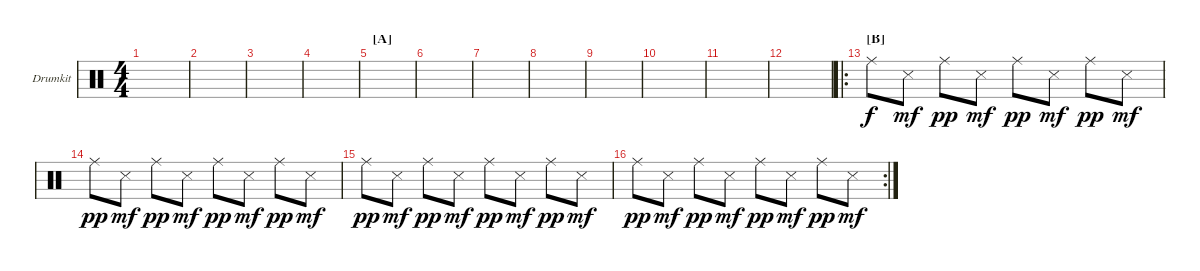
\defaultSystemsLayout 4
\bracketExtendMode groupsimilarinstruments
\firstSystemTrackNameOrientation horizontal
\otherSystemsTrackNameOrientation horizontal
\track ("Drumkit" "Drumkit") {instrument percussion}
\staff {score}
\articulation defaults
\ts (4 4)
\tempo (77 hide)
\clef neutral
\scale
0.474178
\ks c
|
\scale
0.262911 |
\scale
0.262911 |
\scale
0.333333 |
\section ("A" "")
\scale
0.333333 |
\scale
0.333333 |
\scale
0.333333 |
\scale
0.333333 |
\scale
0.333333 |
\scale
0.333333 |
\scale
0.333333 |
\scale
0.333333 |
\ro
\section ("B" "")
\scale
0.333333 "Ride (middle)".8 "Snare (side stick) 3".8{dy mf} "Ride (middle)".8{dy pp} "Snare (side stick) 3".8{dy mf} "Ride (middle)".8{dy pp} "Snare (side stick) 3".8{dy mf} "Ride (middle)".8{dy pp} "Snare (side stick) 3".8{dy mf} |
\scale
0.333333 "Ride (middle)".8{dy pp} "Snare (side stick) 3".8{dy mf} "Ride (middle)".8{dy pp} "Snare (side stick) 3".8{dy mf} "Ride (middle)".8{dy pp} "Snare (side stick) 3".8{dy mf} "Ride (middle)".8{dy pp} "Snare (side stick) 3".8{dy mf} |
"Ride (middle)".8{dy pp} "Snare (side stick) 3".8{dy mf} "Ride (middle)".8{dy pp} "Snare (side stick) 3".8{dy mf} "Ride (middle)".8{dy pp} "Snare (side stick) 3".8{dy mf} "Ride (middle)".8{dy pp} "Snare (side stick) 3".8{dy mf} |
\rc 2 "Ride (middle)".8{dy pp} "Snare (side stick) 3".8{dy mf} "Ride (middle)".8{dy pp} "Snare (side stick) 3".8{dy mf} "Ride (middle)".8{dy pp} "Snare (side stick) 3".8{dy mf} "Ride (middle)".8{dy pp} "Snare (side stick) 3".8{dy mf}
